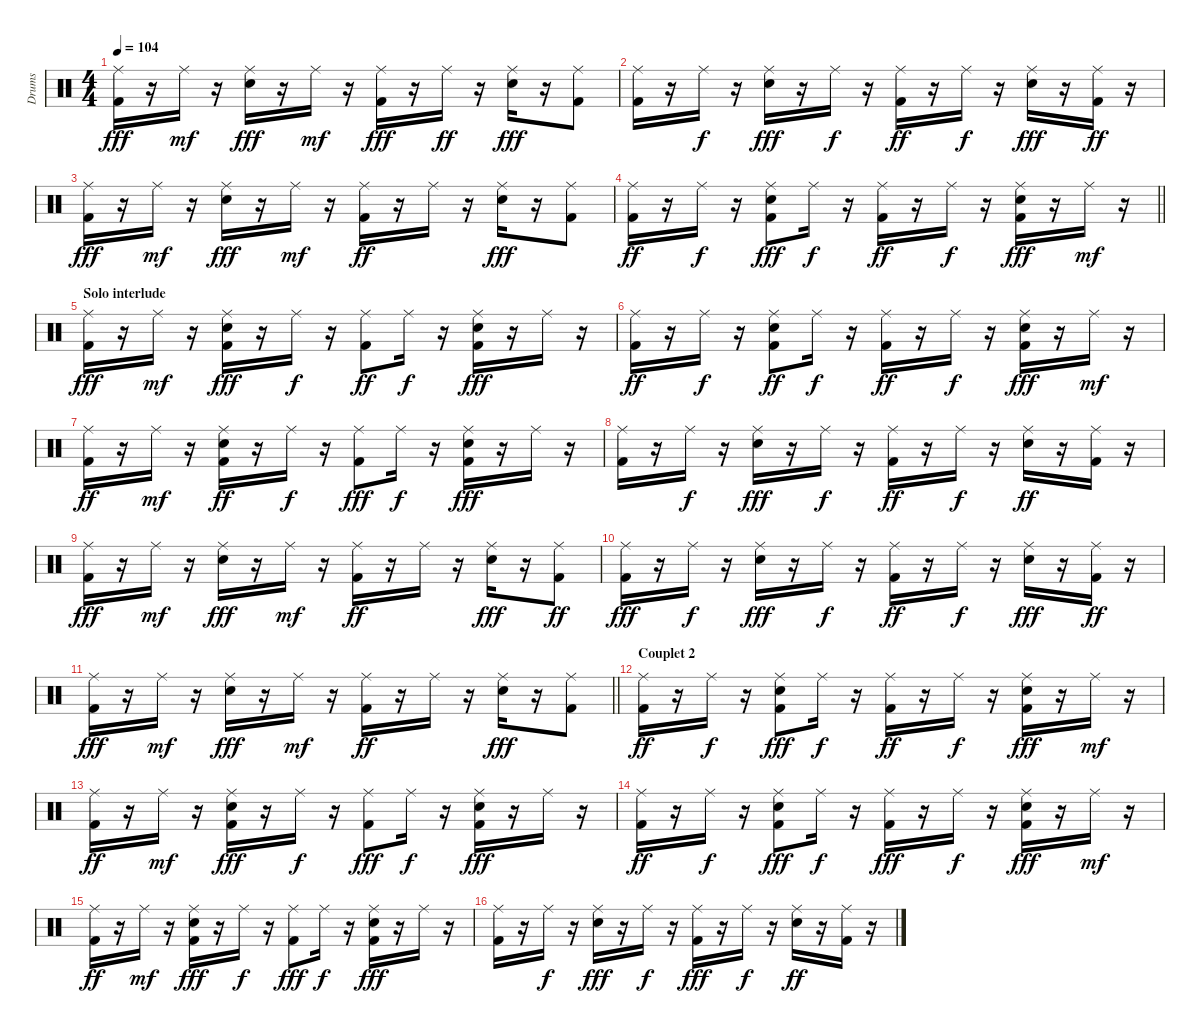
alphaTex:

\track ("Drums" "Drums") {instrument percussion}
\staff {score}
\articulation defaults
\ts (4 4)
\tempo 104
\clef neutral
\ks c
("Kick (hit) 2" "Ride (middle)").16{dy fff} r.16 "Ride (middle)".16{dy mf} r.16 ("Ride (middle)" "Snare (hit) 2").16{dy fff} r.16 "Ride (middle)".16{dy mf} r.16 ("Ride (middle)" "Kick (hit) 2").16{dy fff} r.16 "Ride (middle)".16{dy ff} r.16 ("Ride (middle)" "Snare (hit) 2").16{dy fff} r.16 ("Kick (hit) 2" "Ride (middle)").8 |
("Ride (middle)" "Kick (hit) 2").16 r.16 "Ride (middle)".16{dy f} r.16 ("Snare (hit) 2" "Ride (middle)").16{dy fff} r.16 "Ride (middle)".16{dy f} r.16 ("Kick (hit) 2" "Ride (middle)").16{dy ff} r.16 "Ride (middle)".16{dy f} r.16 ("Ride (middle)" "Snare (hit) 2").16{dy fff} r.16 ("Ride (middle)" "Kick (hit) 2").16{dy ff} r.16 |
("Ride (middle)" "Kick (hit) 2").16{dy fff} r.16 "Ride (middle)".16{dy mf} r.16 ("Snare (hit) 2" "Ride (middle)").16{dy fff} r.16 "Ride (middle)".16{dy mf} r.16 ("Kick (hit) 2" "Ride (middle)").16{dy ff} r.16 "Ride (middle)".16 r.16 ("Snare (hit) 2" "Ride (middle)").16{dy fff} r.16 ("Kick (hit) 2" "Ride (middle)").8 |
\barLineRight lightlight
("Kick (hit) 2" "Ride (middle)").16{dy ff} r.16 "Ride (middle)".16{dy f} r.16 ("Ride (middle)" "Kick (hit) 2" "Snare (hit) 2").8{dy fff} "Ride (middle)".16{dy f} r.16 ("Kick (hit) 2" "Ride (middle)").16{dy ff} r.16 "Ride (middle)".16{dy f} r.16 ("Kick (hit) 2" "Ride (middle)" "Snare (hit) 2").16{dy fff} r.16 "Ride (middle)".16{dy mf} r.16 |
\section ("" "Solo interlude")
("Ride (middle)" "Kick (hit) 2").16{dy fff} r.16 "Ride (middle)".16{dy mf} r.16 ("Ride (middle)" "Kick (hit) 2" "Snare (hit) 2").16{dy fff} r.16 "Ride (middle)".16{dy f} r.16 ("Kick (hit) 2" "Ride (middle)").8{dy ff} "Ride (middle)".16{dy f} r.16 ("Ride (middle)" "Kick (hit) 2" "Snare (hit) 2").16{dy fff} r.16 "Ride (middle)".16 r.16 |
("Kick (hit) 2" "Ride (middle)").16{dy ff} r.16 "Ride (middle)".16{dy f} r.16 ("Kick (hit) 2" "Snare (hit) 2" "Ride (middle)").8{dy ff} "Ride (middle)".16{dy f} r.16 ("Kick (hit) 2" "Ride (middle)").16{dy ff} r.16 "Ride (middle)".16{dy f} r.16 ("Ride (middle)" "Kick (hit) 2" "Snare (hit) 2").16{dy fff} r.16 "Ride (middle)".16{dy mf} r.16 |
("Kick (hit) 2" "Ride (middle)").16{dy ff} r.16 "Ride (middle)".16{dy mf} r.16 ("Kick (hit) 2" "Snare (hit) 2" "Ride (middle)").16{dy ff} r.16 "Ride (middle)".16{dy f} r.16 ("Ride (middle)" "Kick (hit) 2").8{dy fff} "Ride (middle)".16{dy f} r.16 ("Ride (middle)" "Kick (hit) 2" "Snare (hit) 2").16{dy fff} r.16 "Ride (middle)".16 r.16 |
("Ride (middle)" "Kick (hit) 2").16 r.16 "Ride (middle)".16{dy f} r.16 ("Ride (middle)" "Snare (hit) 2").16{dy fff} r.16 "Ride (middle)".16{dy f} r.16 ("Kick (hit) 2" "Ride (middle)").16{dy ff} r.16 "Ride (middle)".16{dy f} r.16 ("Snare (hit) 2" "Ride (middle)").16{dy ff} r.16 ("Ride (middle)" "Kick (hit) 2").16 r.16 |
("Kick (hit) 2" "Ride (middle)").16{dy fff} r.16 "Ride (middle)".16{dy mf} r.16 ("Ride (middle)" "Snare (hit) 2").16{dy fff} r.16 "Ride (middle)".16{dy mf} r.16 ("Kick (hit) 2" "Ride (middle)").16{dy ff} r.16 "Ride (middle)".16 r.16 ("Snare (hit) 2" "Ride (middle)").16{dy fff} r.16 ("Ride (middle)" "Kick (hit) 2").8{dy ff} |
("Kick (hit) 2" "Ride (middle)").16{dy fff} r.16 "Ride (middle)".16{dy f} r.16 ("Snare (hit) 2" "Ride (middle)").16{dy fff} r.16 "Ride (middle)".16{dy f} r.16 ("Kick (hit) 2" "Ride (middle)").16{dy ff} r.16 "Ride (middle)".16{dy f} r.16 ("Ride (middle)" "Snare (hit) 2").16{dy fff} r.16 ("Kick (hit) 2" "Ride (middle)").16{dy ff} r.16 |
\barLineRight lightlight
("Kick (hit) 2" "Ride (middle)").16{dy fff} r.16 "Ride (middle)".16{dy mf} r.16 ("Snare (hit) 2" "Ride (middle)").16{dy fff} r.16 "Ride (middle)".16{dy mf} r.16 ("Kick (hit) 2" "Ride (middle)").16{dy ff} r.16 "Ride (middle)".16 r.16 ("Snare (hit) 2" "Ride (middle)").16{dy fff} r.16 ("Kick (hit) 2" "Ride (middle)").8 |
\section ("" "Couplet 2")
("Kick (hit) 2" "Ride (middle)").16{dy ff} r.16 "Ride (middle)".16{dy f} r.16 ("Ride (middle)" "Kick (hit) 2" "Snare (hit) 2").8{dy fff} "Ride (middle)".16{dy f} r.16 ("Kick (hit) 2" "Ride (middle)").16{dy ff} r.16 "Ride (middle)".16{dy f} r.16 ("Snare (hit) 2" "Kick (hit) 2" "Ride (middle)").16{dy fff} r.16 "Ride (middle)".16{dy mf} r.16 |
("Kick (hit) 2" "Ride (middle)").16{dy ff} r.16 "Ride (middle)".16{dy mf} r.16 ("Ride (middle)" "Kick (hit) 2" "Snare (hit) 2").16{dy fff} r.16 "Ride (middle)".16{dy f} r.16 ("Ride (middle)" "Kick (hit) 2").8{dy fff} "Ride (middle)".16{dy f} r.16 ("Snare (hit) 2" "Kick (hit) 2" "Ride (middle)").16{dy fff} r.16 "Ride (middle)".16 r.16 |
("Ride (middle)" "Kick (hit) 2").16{dy ff} r.16 "Ride (middle)".16{dy f} r.16 ("Snare (hit) 2" "Ride (middle)" "Kick (hit) 2").8{dy fff} "Ride (middle)".16{dy f} r.16 ("Ride (middle)" "Kick (hit) 2").16{dy fff} r.16 "Ride (middle)".16{dy f} r.16 ("Snare (hit) 2" "Ride (middle)" "Kick (hit) 2").16{dy fff} r.16 "Ride (middle)".16{dy mf} r.16 |
("Kick (hit) 2" "Ride (middle)").16{dy ff} r.16 "Ride (middle)".16{dy mf} r.16 ("Ride (middle)" "Kick (hit) 2" "Snare (hit) 2").16{dy fff} r.16 "Ride (middle)".16{dy f} r.16 ("Ride (middle)" "Kick (hit) 2").8{dy fff} "Ride (middle)".16{dy f} r.16 ("Kick (hit) 2" "Ride (middle)" "Snare (hit) 2").16{dy fff} r.16 "Ride (middle)".16 r.16 |
("Ride (middle)" "Kick (hit) 2").16 r.16 "Ride (middle)".16{dy f} r.16 ("Snare (hit) 2" "Ride (middle)").16{dy fff} r.16 "Ride (middle)".16{dy f} r.16 ("Ride (middle)" "Kick (hit) 2").16{dy fff} r.16 "Ride (middle)".16{dy f} r.16 ("Snare (hit) 2" "Ride (middle)").16{dy ff} r.16 ("Kick (hit) 2" "Ride (middle)").16 r.16
